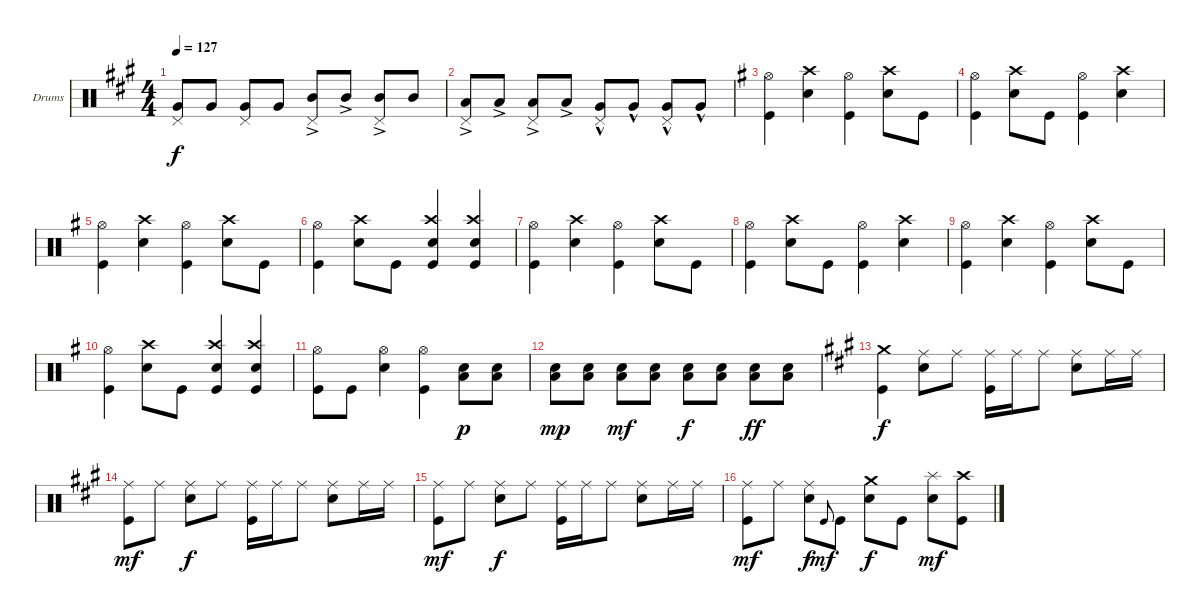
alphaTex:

\bracketExtendMode groupsimilarinstruments
\firstSystemTrackNameOrientation horizontal
\otherSystemsTrackNameOrientation horizontal
\track ("Drumkit" "Drums") {instrument percussion}
\staff {score}
\articulation defaults
\ts (4 4)
\tempo 127
\clef neutral
\ks f#minor
("Pedal Hi-Hat (hit)" "Very Low Tom (hit)").8{dy f} "Very Low Tom (hit)".8 ("Pedal Hi-Hat (hit)" "Very Low Tom (hit)").8 "Very Low Tom (hit)".8 ("Pedal Hi-Hat (hit)" "Mid Tom (hit)"{ac}).8 "Mid Tom (hit)"{ac}.8 ("Pedal Hi-Hat (hit)" "Mid Tom (hit)"{ac}).8 "Mid Tom (hit)".8 |
("Pedal Hi-Hat (hit)" "Low Tom (hit)"{ac}).8 "Low Tom (hit)"{ac}.8 ("Pedal Hi-Hat (hit)" "Low Tom (hit)"{ac}).8 "Low Tom (hit)"{ac}.8 ("Pedal Hi-Hat (hit)" "Very Low Tom (hit)"{hac}).8 "Very Low Tom (hit)"{hac}.8 ("Pedal Hi-Hat (hit)" "Very Low Tom (hit)"{hac}).8 "Very Low Tom (hit)"{hac}.8 |
\ks eminor
("Hi-Hat (open)" "Kick (hit)").4 ("Crash high (hit)" "Snare (hit) 2").4 ("Hi-Hat (open)" "Kick (hit)").4 ("Crash high (hit)" "Snare (hit) 2").8 "Kick (hit)".8 |
("Hi-Hat (open)" "Kick (hit)").4 ("Crash high (hit)" "Snare (hit) 2").8 "Kick (hit)".8 ("Kick (hit)" "Hi-Hat (open)").4 ("Snare (hit) 2" "Crash high (hit)").4 |
("Hi-Hat (open)" "Kick (hit)").4 ("Crash high (hit)" "Snare (hit) 2").4 ("Hi-Hat (open)" "Kick (hit)").4 ("Crash high (hit)" "Snare (hit) 2").8 "Kick (hit)".8 |
("Hi-Hat (open)" "Kick (hit)").4 ("Crash high (hit)" "Snare (hit) 2").8 "Kick (hit)".8 ("Kick (hit)" "Snare (hit) 2" "Crash high (hit)").4 ("Snare (hit) 2" "Crash high (hit)" "Kick (hit)").4 |
("Hi-Hat (open)" "Kick (hit)").4 ("Crash high (hit)" "Snare (hit) 2").4 ("Hi-Hat (open)" "Kick (hit)").4 ("Crash high (hit)" "Snare (hit) 2").8 "Kick (hit)".8 |
("Hi-Hat (open)" "Kick (hit)").4 ("Crash high (hit)" "Snare (hit) 2").8 "Kick (hit)".8 ("Kick (hit)" "Hi-Hat (open)").4 ("Snare (hit) 2" "Crash high (hit)").4 |
("Hi-Hat (open)" "Kick (hit)").4 ("Crash high (hit)" "Snare (hit) 2").4 ("Hi-Hat (open)" "Kick (hit)").4 ("Crash high (hit)" "Snare (hit) 2").8 "Kick (hit)".8 |
("Hi-Hat (open)" "Kick (hit)").4 ("Crash high (hit)" "Snare (hit) 2").8 "Kick (hit)".8 ("Kick (hit)" "Snare (hit) 2" "Crash high (hit)").4 ("Snare (hit) 2" "Crash high (hit)" "Kick (hit)").4 |
("Hi-Hat (open)" "Kick (hit)").8 "Kick (hit)".8 ("Hi-Hat (open)" "Snare (hit) 2").4 ("Hi-Hat (open)" "Kick (hit)").4 ("Low Tom (hit)" "Snare (hit) 2").8{dy p} ("Low Tom (hit)" "Snare (hit) 2").8 |
("Low Tom (hit)" "Snare (hit) 2").8{dy mp} ("Low Tom (hit)" "Snare (hit) 2").8 ("Low Tom (hit)" "Snare (hit) 2").8{dy mf} ("Low Tom (hit)" "Snare (hit) 2").8 ("Low Tom (hit)" "Snare (hit) 2").8{dy f} ("Low Tom (hit)" "Snare (hit) 2").8 ("Low Tom (hit)" "Snare (hit) 2").8{dy ff} ("Low Tom (hit)" "Snare (hit) 2").8 |
\ks f#minor
("Crash medium (hit)" "Kick (hit)").4{dy f} ("Snare (hit) 2" "Ride (middle)").8 "Ride (middle)".8 ("Ride (middle)" "Kick (hit)").16 "Ride (middle)".16 "Ride (middle)".8 ("Ride (middle)" "Snare (hit) 2").8 "Ride (middle)".16 "Ride (middle)".16 |
("Kick (hit)" "Ride (middle)").8{dy mf} "Ride (middle)".8 ("Snare (hit) 2" "Ride (middle)").8{dy f} "Ride (middle)".8 ("Ride (middle)" "Kick (hit)").16 "Ride (middle)".16 "Ride (middle)".8 ("Ride (middle)" "Snare (hit) 2").8 "Ride (middle)".16 "Ride (middle)".16 |
("Kick (hit)" "Ride (middle)").8{dy mf} "Ride (middle)".8 ("Snare (hit) 2" "Ride (middle)").8{dy f} "Ride (middle)".8 ("Ride (middle)" "Kick (hit)").16 "Ride (middle)".16 "Ride (middle)".8 ("Ride (middle)" "Snare (hit) 2").8 "Ride (middle)".16 "Ride (middle)".16 |
("Kick (hit)" "Ride (middle)").8{dy mf} "Ride (middle)".8 ("Snare (hit) 2" "Ride (middle)").8{dy f} "Kick (hit)".8{gr onbeat dy mf} "Kick (hit)".8 ("Snare (hit) 2" "Crash medium (hit)").8{dy f} "Kick (hit)".8 ("Snare (hit) 2" "Splash (hit)").8{dy mf} ("Kick (hit)" "Crash high (hit)").8
